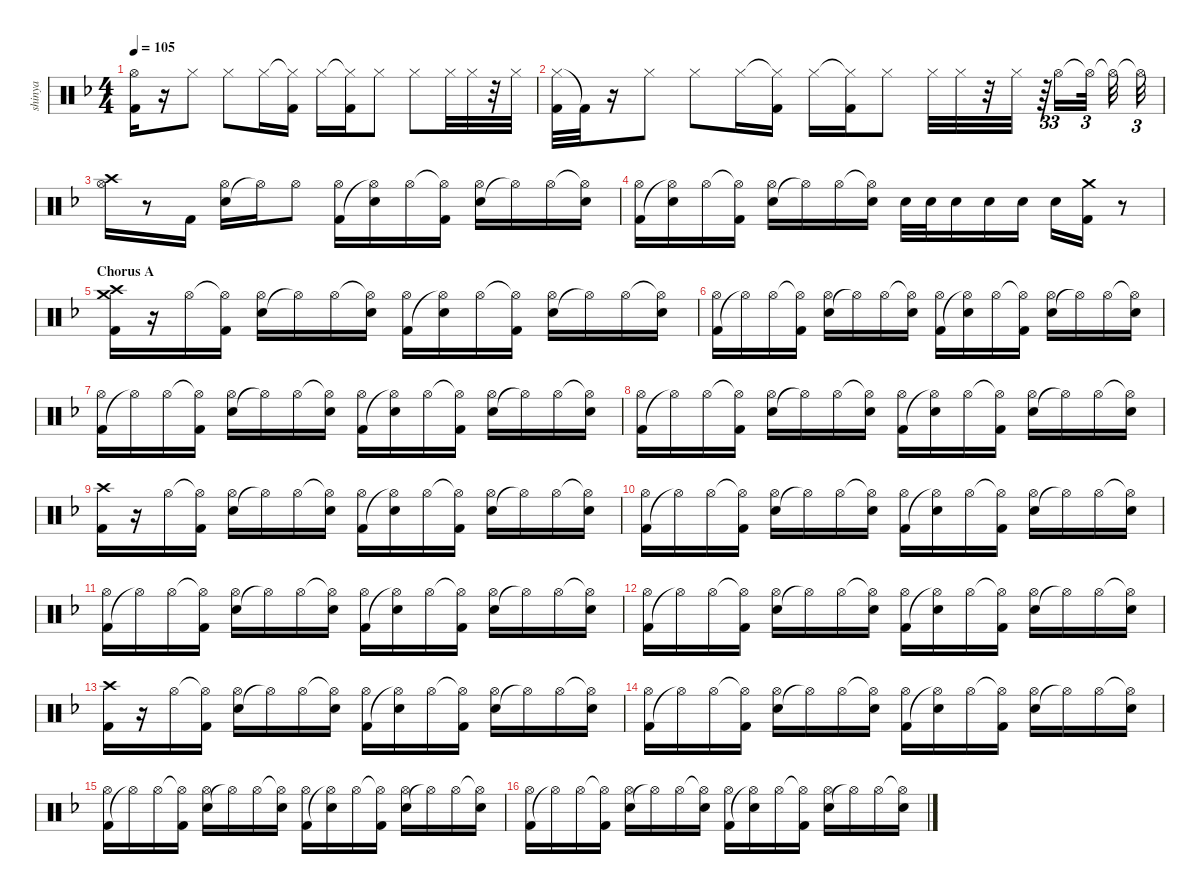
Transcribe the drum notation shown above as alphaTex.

\defaultSystemsLayout 4
\hideDynamics
\bracketExtendMode nobrackets
\otherSystemsTrackNameOrientation horizontal
\track ("Shinya" "shinya") {defaultSystemsLayout 4 instrument percussion}
\staff {score}
\articulation defaults
\ts (4 4)
\tempo 105
\clef neutral
\scale
1.05921
\ks dminor
("Kick (hit) 2"{acc forcenatural} "Hi-Hat (open)"{acc #}).16{dy fff} r.16 "Hi-Hat (closed)"{acc #}.8{dy ff} "Hi-Hat (closed)"{acc #}.8 "Hi-Hat (closed)"{acc #}.16 ("Hi-Hat (closed)"{t acc #} "Kick (hit) 2"{acc forcenatural}).16 "Hi-Hat (closed)"{acc #}.16 ("Hi-Hat (closed)"{t acc #} "Kick (hit) 2"{acc forcenatural}).16 "Hi-Hat (closed)"{acc #}.8 "Hi-Hat (closed)"{acc #}.8 "Hi-Hat (closed)"{acc #}.32 "Hi-Hat (closed)"{acc #}.32 r.32 "Hi-Hat (closed)"{acc #}.32 |
\scale
0.974368 ("Hi-Hat (closed)"{acc #} "Kick (hit) 2"{acc forcenatural}).32 "Kick (hit) 2"{t acc forcenatural}.32{dy fff} r.16 "Hi-Hat (closed)"{acc #}.8{dy ff} "Hi-Hat (closed)"{acc #}.8 "Hi-Hat (closed)"{acc #}.16 ("Hi-Hat (closed)"{t acc #} "Kick (hit) 2"{acc forcenatural}).16 "Hi-Hat (closed)"{acc #}.16 ("Hi-Hat (closed)"{t acc #} "Kick (hit) 2"{acc forcenatural}).16 "Hi-Hat (closed)"{acc #}.8 "Hi-Hat (closed)"{acc #}.32 "Hi-Hat (closed)"{acc #}.32 r.32 "Hi-Hat (closed)"{acc #}.32 r.64{tu (3 2)} "Hi-Hat (open)"{acc #}.16{tu (3 2)} "Hi-Hat (open)"{t acc #}.32{tu (3 2)} "Hi-Hat (open)"{t acc #}.32 "Hi-Hat (open)"{t acc #}.32{tu (3 2)} |
\scale
0.974368 ("Hi-Hat (open)"{acc #} "Crash high (hit)"{acc #}).16{dy fff} r.8 "Kick (hit) 2"{acc forcenatural}.16 ("Snare (hit) 2"{acc forcenatural} "Hi-Hat (open)"{acc #}).16 "Hi-Hat (open)"{t acc #}.16 "Hi-Hat (open)"{acc #}.8{dy ff} ("Kick (hit) 2"{acc forcenatural} "Hi-Hat (open)"{acc #}).16{dy fff} ("Hi-Hat (open)"{t acc #} "Snare (hit) 2"{acc forcenatural}).16 "Hi-Hat (open)"{acc #}.16 ("Hi-Hat (open)"{t acc #} "Kick (hit) 2"{acc forcenatural}).16 ("Snare (hit) 2"{acc forcenatural} "Hi-Hat (open)"{acc #}).16 "Hi-Hat (open)"{t acc #}.16 "Hi-Hat (open)"{acc #}.16 ("Hi-Hat (open)"{t acc #} "Snare (hit) 2"{acc forcenatural}).16 |
\scale
0.992053 ("Kick (hit) 2"{acc forcenatural} "Hi-Hat (open)"{acc #}).16 ("Hi-Hat (open)"{t acc #} "Snare (hit) 2"{acc forcenatural}).16 "Hi-Hat (open)"{acc #}.16 ("Hi-Hat (open)"{t acc #} "Kick (hit) 2"{acc forcenatural}).16 ("Snare (hit) 2"{acc forcenatural} "Hi-Hat (open)"{acc #}).16 "Hi-Hat (open)"{t acc #}.16 "Hi-Hat (open)"{acc #}.16 ("Hi-Hat (open)"{t acc #} "Snare (hit) 2"{acc forcenatural}).16 "Snare (hit) 2"{acc forcenatural}.32 "Snare (hit) 2"{acc forcenatural}.32 "Snare (hit) 2"{acc forcenatural}.16 "Snare (hit) 2"{acc forcenatural}.16 "Snare (hit) 2"{acc forcenatural}.16 "Snare (hit) 2"{acc forcenatural}.16 ("Kick (hit) 2"{acc forcenatural} "Crash medium (hit)"{acc forcenatural}).16 r.8 |
\section ("" "Chorus A")
\scale
1.06363 ("Kick (hit) 2"{acc forcenatural} "Crash high (hit)"{acc #} "Crash medium (hit)"{acc forcenatural}).16 r.16 "Hi-Hat (open)"{acc #}.16 ("Hi-Hat (open)"{t acc #} "Kick (hit) 2"{acc forcenatural}).16 ("Snare (hit) 2"{acc forcenatural} "Hi-Hat (open)"{acc #}).16 "Hi-Hat (open)"{t acc #}.16 "Hi-Hat (open)"{acc #}.16 ("Hi-Hat (open)"{t acc #} "Snare (hit) 2"{acc forcenatural}).16 ("Kick (hit) 2"{acc forcenatural} "Hi-Hat (open)"{acc #}).16 ("Hi-Hat (open)"{t acc #} "Snare (hit) 2"{acc forcenatural}).16 "Hi-Hat (open)"{acc #}.16 ("Hi-Hat (open)"{t acc #} "Kick (hit) 2"{acc forcenatural}).16 ("Snare (hit) 2"{acc forcenatural} "Hi-Hat (open)"{acc #}).16 "Hi-Hat (open)"{t acc #}.16 "Hi-Hat (open)"{acc #}.16 ("Hi-Hat (open)"{t acc #} "Snare (hit) 2"{acc forcenatural}).16 |
\scale
0.97879 ("Kick (hit) 2"{acc forcenatural} "Hi-Hat (open)"{acc #}).16 "Hi-Hat (open)"{t acc #}.16 "Hi-Hat (open)"{acc #}.16 ("Hi-Hat (open)"{t acc #} "Kick (hit) 2"{acc forcenatural}).16 ("Snare (hit) 2"{acc forcenatural} "Hi-Hat (open)"{acc #}).16 "Hi-Hat (open)"{t acc #}.16 "Hi-Hat (open)"{acc #}.16 ("Hi-Hat (open)"{t acc #} "Snare (hit) 2"{acc forcenatural}).16 ("Kick (hit) 2"{acc forcenatural} "Hi-Hat (open)"{acc #}).16 ("Hi-Hat (open)"{t acc #} "Snare (hit) 2"{acc forcenatural}).16 "Hi-Hat (open)"{acc #}.16 ("Hi-Hat (open)"{t acc #} "Kick (hit) 2"{acc forcenatural}).16 ("Snare (hit) 2"{acc forcenatural} "Hi-Hat (open)"{acc #}).16 "Hi-Hat (open)"{t acc #}.16 "Hi-Hat (open)"{acc #}.16 ("Hi-Hat (open)"{t acc #} "Snare (hit) 2"{acc forcenatural}).16 |
\scale
0.97879 ("Kick (hit) 2"{acc forcenatural} "Hi-Hat (open)"{acc #}).16 "Hi-Hat (open)"{t acc #}.16 "Hi-Hat (open)"{acc #}.16 ("Hi-Hat (open)"{t acc #} "Kick (hit) 2"{acc forcenatural}).16 ("Snare (hit) 2"{acc forcenatural} "Hi-Hat (open)"{acc #}).16 "Hi-Hat (open)"{t acc #}.16 "Hi-Hat (open)"{acc #}.16 ("Hi-Hat (open)"{t acc #} "Snare (hit) 2"{acc forcenatural}).16 ("Kick (hit) 2"{acc forcenatural} "Hi-Hat (open)"{acc #}).16 ("Hi-Hat (open)"{t acc #} "Snare (hit) 2"{acc forcenatural}).16 "Hi-Hat (open)"{acc #}.16 ("Hi-Hat (open)"{t acc #} "Kick (hit) 2"{acc forcenatural}).16 ("Snare (hit) 2"{acc forcenatural} "Hi-Hat (open)"{acc #}).16 "Hi-Hat (open)"{t acc #}.16 "Hi-Hat (open)"{acc #}.16 ("Hi-Hat (open)"{t acc #} "Snare (hit) 2"{acc forcenatural}).16 |
\scale
0.97879 ("Kick (hit) 2"{acc forcenatural} "Hi-Hat (open)"{acc #}).16 "Hi-Hat (open)"{t acc #}.16 "Hi-Hat (open)"{acc #}.16 ("Hi-Hat (open)"{t acc #} "Kick (hit) 2"{acc forcenatural}).16 ("Snare (hit) 2"{acc forcenatural} "Hi-Hat (open)"{acc #}).16 "Hi-Hat (open)"{t acc #}.16 "Hi-Hat (open)"{acc #}.16 ("Hi-Hat (open)"{t acc #} "Snare (hit) 2"{acc forcenatural}).16 ("Kick (hit) 2"{acc forcenatural} "Hi-Hat (open)"{acc #}).16 ("Hi-Hat (open)"{t acc #} "Snare (hit) 2"{acc forcenatural}).16 "Hi-Hat (open)"{acc #}.16 ("Hi-Hat (open)"{t acc #} "Kick (hit) 2"{acc forcenatural}).16 ("Snare (hit) 2"{acc forcenatural} "Hi-Hat (open)"{acc #}).16 "Hi-Hat (open)"{t acc #}.16 "Hi-Hat (open)"{acc #}.16 ("Hi-Hat (open)"{t acc #} "Snare (hit) 2"{acc forcenatural}).16 |
\scale
1.06363 ("Kick (hit) 2"{acc forcenatural} "Crash high (hit)"{acc #}).16 r.16 "Hi-Hat (open)"{acc #}.16 ("Hi-Hat (open)"{t acc #} "Kick (hit) 2"{acc forcenatural}).16 ("Snare (hit) 2"{acc forcenatural} "Hi-Hat (open)"{acc #}).16 "Hi-Hat (open)"{t acc #}.16 "Hi-Hat (open)"{acc #}.16 ("Hi-Hat (open)"{t acc #} "Snare (hit) 2"{acc forcenatural}).16 ("Kick (hit) 2"{acc forcenatural} "Hi-Hat (open)"{acc #}).16 ("Hi-Hat (open)"{t acc #} "Snare (hit) 2"{acc forcenatural}).16 "Hi-Hat (open)"{acc #}.16 ("Hi-Hat (open)"{t acc #} "Kick (hit) 2"{acc forcenatural}).16 ("Snare (hit) 2"{acc forcenatural} "Hi-Hat (open)"{acc #}).16 "Hi-Hat (open)"{t acc #}.16 "Hi-Hat (open)"{acc #}.16 ("Hi-Hat (open)"{t acc #} "Snare (hit) 2"{acc forcenatural}).16 |
\scale
0.97879 ("Kick (hit) 2"{acc forcenatural} "Hi-Hat (open)"{acc #}).16 "Hi-Hat (open)"{t acc #}.16 "Hi-Hat (open)"{acc #}.16 ("Hi-Hat (open)"{t acc #} "Kick (hit) 2"{acc forcenatural}).16 ("Snare (hit) 2"{acc forcenatural} "Hi-Hat (open)"{acc #}).16 "Hi-Hat (open)"{t acc #}.16 "Hi-Hat (open)"{acc #}.16 ("Hi-Hat (open)"{t acc #} "Snare (hit) 2"{acc forcenatural}).16 ("Kick (hit) 2"{acc forcenatural} "Hi-Hat (open)"{acc #}).16 ("Hi-Hat (open)"{t acc #} "Snare (hit) 2"{acc forcenatural}).16 "Hi-Hat (open)"{acc #}.16 ("Hi-Hat (open)"{t acc #} "Kick (hit) 2"{acc forcenatural}).16 ("Snare (hit) 2"{acc forcenatural} "Hi-Hat (open)"{acc #}).16 "Hi-Hat (open)"{t acc #}.16 "Hi-Hat (open)"{acc #}.16 ("Hi-Hat (open)"{t acc #} "Snare (hit) 2"{acc forcenatural}).16 |
\scale
0.97879 ("Kick (hit) 2"{acc forcenatural} "Hi-Hat (open)"{acc #}).16 "Hi-Hat (open)"{t acc #}.16 "Hi-Hat (open)"{acc #}.16 ("Hi-Hat (open)"{t acc #} "Kick (hit) 2"{acc forcenatural}).16 ("Snare (hit) 2"{acc forcenatural} "Hi-Hat (open)"{acc #}).16 "Hi-Hat (open)"{t acc #}.16 "Hi-Hat (open)"{acc #}.16 ("Hi-Hat (open)"{t acc #} "Snare (hit) 2"{acc forcenatural}).16 ("Kick (hit) 2"{acc forcenatural} "Hi-Hat (open)"{acc #}).16 ("Hi-Hat (open)"{t acc #} "Snare (hit) 2"{acc forcenatural}).16 "Hi-Hat (open)"{acc #}.16 ("Hi-Hat (open)"{t acc #} "Kick (hit) 2"{acc forcenatural}).16 ("Snare (hit) 2"{acc forcenatural} "Hi-Hat (open)"{acc #}).16 "Hi-Hat (open)"{t acc #}.16 "Hi-Hat (open)"{acc #}.16 ("Hi-Hat (open)"{t acc #} "Snare (hit) 2"{acc forcenatural}).16 |
\scale
0.97879 ("Kick (hit) 2"{acc forcenatural} "Hi-Hat (open)"{acc #}).16 "Hi-Hat (open)"{t acc #}.16 "Hi-Hat (open)"{acc #}.16 ("Hi-Hat (open)"{t acc #} "Kick (hit) 2"{acc forcenatural}).16 ("Snare (hit) 2"{acc forcenatural} "Hi-Hat (open)"{acc #}).16 "Hi-Hat (open)"{t acc #}.16 "Hi-Hat (open)"{acc #}.16 ("Hi-Hat (open)"{t acc #} "Snare (hit) 2"{acc forcenatural}).16 ("Kick (hit) 2"{acc forcenatural} "Hi-Hat (open)"{acc #}).16 ("Hi-Hat (open)"{t acc #} "Snare (hit) 2"{acc forcenatural}).16 "Hi-Hat (open)"{acc #}.16 ("Hi-Hat (open)"{t acc #} "Kick (hit) 2"{acc forcenatural}).16 ("Snare (hit) 2"{acc forcenatural} "Hi-Hat (open)"{acc #}).16 "Hi-Hat (open)"{t acc #}.16 "Hi-Hat (open)"{acc #}.16 ("Hi-Hat (open)"{t acc #} "Snare (hit) 2"{acc forcenatural}).16 |
\scale
1.06363 ("Kick (hit) 2"{acc forcenatural} "Crash high (hit)"{acc #}).16 r.16 "Hi-Hat (open)"{acc #}.16 ("Hi-Hat (open)"{t acc #} "Kick (hit) 2"{acc forcenatural}).16 ("Snare (hit) 2"{acc forcenatural} "Hi-Hat (open)"{acc #}).16 "Hi-Hat (open)"{t acc #}.16 "Hi-Hat (open)"{acc #}.16 ("Hi-Hat (open)"{t acc #} "Snare (hit) 2"{acc forcenatural}).16 ("Kick (hit) 2"{acc forcenatural} "Hi-Hat (open)"{acc #}).16 ("Hi-Hat (open)"{t acc #} "Snare (hit) 2"{acc forcenatural}).16 "Hi-Hat (open)"{acc #}.16 ("Hi-Hat (open)"{t acc #} "Kick (hit) 2"{acc forcenatural}).16 ("Snare (hit) 2"{acc forcenatural} "Hi-Hat (open)"{acc #}).16 "Hi-Hat (open)"{t acc #}.16 "Hi-Hat (open)"{acc #}.16 ("Hi-Hat (open)"{t acc #} "Snare (hit) 2"{acc forcenatural}).16 |
\scale
0.97879 ("Kick (hit) 2"{acc forcenatural} "Hi-Hat (open)"{acc #}).16 "Hi-Hat (open)"{t acc #}.16 "Hi-Hat (open)"{acc #}.16 ("Hi-Hat (open)"{t acc #} "Kick (hit) 2"{acc forcenatural}).16 ("Snare (hit) 2"{acc forcenatural} "Hi-Hat (open)"{acc #}).16 "Hi-Hat (open)"{t acc #}.16 "Hi-Hat (open)"{acc #}.16 ("Hi-Hat (open)"{t acc #} "Snare (hit) 2"{acc forcenatural}).16 ("Kick (hit) 2"{acc forcenatural} "Hi-Hat (open)"{acc #}).16 ("Hi-Hat (open)"{t acc #} "Snare (hit) 2"{acc forcenatural}).16 "Hi-Hat (open)"{acc #}.16 ("Hi-Hat (open)"{t acc #} "Kick (hit) 2"{acc forcenatural}).16 ("Snare (hit) 2"{acc forcenatural} "Hi-Hat (open)"{acc #}).16 "Hi-Hat (open)"{t acc #}.16 "Hi-Hat (open)"{acc #}.16 ("Hi-Hat (open)"{t acc #} "Snare (hit) 2"{acc forcenatural}).16 |
\scale
0.97879 ("Kick (hit) 2"{acc forcenatural} "Hi-Hat (open)"{acc #}).16 "Hi-Hat (open)"{t acc #}.16 "Hi-Hat (open)"{acc #}.16 ("Hi-Hat (open)"{t acc #} "Kick (hit) 2"{acc forcenatural}).16 ("Snare (hit) 2"{acc forcenatural} "Hi-Hat (open)"{acc #}).16 "Hi-Hat (open)"{t acc #}.16 "Hi-Hat (open)"{acc #}.16 ("Hi-Hat (open)"{t acc #} "Snare (hit) 2"{acc forcenatural}).16 ("Kick (hit) 2"{acc forcenatural} "Hi-Hat (open)"{acc #}).16 ("Hi-Hat (open)"{t acc #} "Snare (hit) 2"{acc forcenatural}).16 "Hi-Hat (open)"{acc #}.16 ("Hi-Hat (open)"{t acc #} "Kick (hit) 2"{acc forcenatural}).16 ("Snare (hit) 2"{acc forcenatural} "Hi-Hat (open)"{acc #}).16 "Hi-Hat (open)"{t acc #}.16 "Hi-Hat (open)"{acc #}.16 ("Hi-Hat (open)"{t acc #} "Snare (hit) 2"{acc forcenatural}).16 |
\scale
0.97879 ("Kick (hit) 2"{acc forcenatural} "Hi-Hat (open)"{acc #}).16 "Hi-Hat (open)"{t acc #}.16 "Hi-Hat (open)"{acc #}.16 ("Hi-Hat (open)"{t acc #} "Kick (hit) 2"{acc forcenatural}).16 ("Snare (hit) 2"{acc forcenatural} "Hi-Hat (open)"{acc #}).16 "Hi-Hat (open)"{t acc #}.16 "Hi-Hat (open)"{acc #}.16 ("Hi-Hat (open)"{t acc #} "Snare (hit) 2"{acc forcenatural}).16 ("Kick (hit) 2"{acc forcenatural} "Hi-Hat (open)"{acc #}).16 ("Hi-Hat (open)"{t acc #} "Snare (hit) 2"{acc forcenatural}).16 "Hi-Hat (open)"{acc #}.16 ("Hi-Hat (open)"{t acc #} "Kick (hit) 2"{acc forcenatural}).16 ("Snare (hit) 2"{acc forcenatural} "Hi-Hat (open)"{acc #}).16 "Hi-Hat (open)"{t acc #}.16 "Hi-Hat (open)"{acc #}.16 ("Hi-Hat (open)"{t acc #} "Snare (hit) 2"{acc forcenatural}).16
